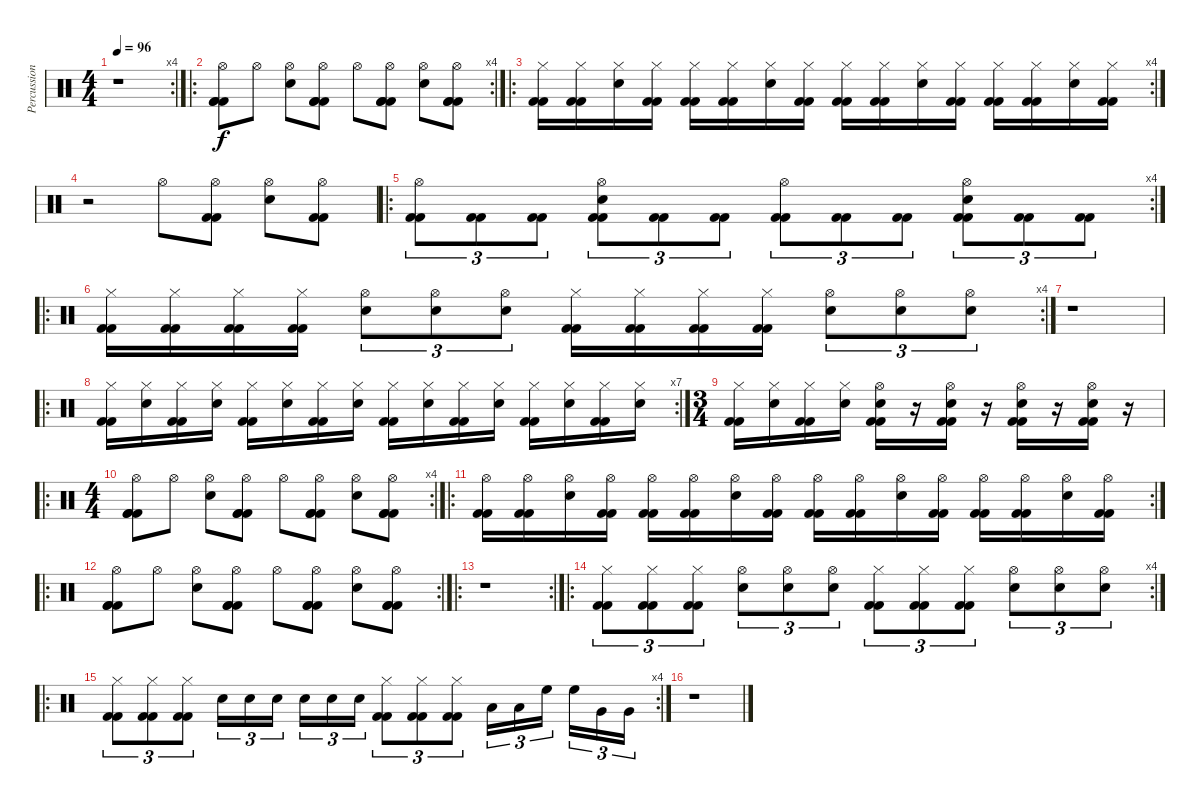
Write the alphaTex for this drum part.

\track ("Percussion" "Percussion") {instrument percussion}
\staff {score}
\articulation defaults
\rc 4
\ts (4 4)
\tempo 96
\clef neutral
\ks c
r.1{dy f} |
\ro
\rc 4
("Hi-Hat (open)" "Kick (hit) 2" "Kick (hit) 2" "Kick (hit) 2").8 "Hi-Hat (open)".8 ("Hi-Hat (open)" "Snare (hit) 2").8 ("Hi-Hat (open)" "Kick (hit) 2" "Kick (hit) 2" "Kick (hit) 2").8 "Hi-Hat (open)".8 ("Hi-Hat (open)" "Kick (hit) 2" "Kick (hit) 2" "Kick (hit) 2").8 ("Hi-Hat (open)" "Snare (hit) 2").8 ("Hi-Hat (open)" "Kick (hit) 2" "Kick (hit) 2" "Kick (hit) 2").8 |
\ro
\rc 4
("Hi-Hat (closed)" "Kick (hit) 2" "Kick (hit) 2").16 ("Hi-Hat (closed)" "Kick (hit) 2" "Kick (hit) 2").16 ("Hi-Hat (closed)" "Snare (hit) 2").16 ("Hi-Hat (closed)" "Kick (hit) 2" "Kick (hit) 2").16 ("Hi-Hat (closed)" "Kick (hit) 2" "Kick (hit) 2").16 ("Hi-Hat (closed)" "Kick (hit) 2" "Kick (hit) 2").16 ("Hi-Hat (closed)" "Snare (hit) 2").16 ("Hi-Hat (closed)" "Kick (hit) 2" "Kick (hit) 2").16 ("Hi-Hat (closed)" "Kick (hit) 2" "Kick (hit) 2").16 ("Hi-Hat (closed)" "Kick (hit) 2" "Kick (hit) 2").16 ("Hi-Hat (closed)" "Snare (hit) 2").16 ("Hi-Hat (closed)" "Kick (hit) 2" "Kick (hit) 2").16 ("Hi-Hat (closed)" "Kick (hit) 2" "Kick (hit) 2").16 ("Hi-Hat (closed)" "Kick (hit) 2" "Kick (hit) 2").16 ("Hi-Hat (closed)" "Snare (hit) 2").16 ("Hi-Hat (closed)" "Kick (hit) 2" "Kick (hit) 2").16 |
r.2 "Hi-Hat (open)".8 ("Hi-Hat (open)" "Kick (hit) 2" "Kick (hit) 2").8 ("Hi-Hat (open)" "Snare (hit) 2").8 ("Hi-Hat (open)" "Kick (hit) 2" "Kick (hit) 2").8 |
\ro
\rc 4
("Hi-Hat (open)" "Kick (hit) 2" "Kick (hit) 2").8{tu (3 2)} ("Kick (hit) 2" "Kick (hit) 2").8{tu (3 2)} ("Kick (hit) 2" "Kick (hit) 2").8{tu (3 2)} ("Hi-Hat (open)" "Snare (hit) 2" "Kick (hit) 2" "Kick (hit) 2").8{tu (3 2)} ("Kick (hit) 2" "Kick (hit) 2").8{tu (3 2)} ("Kick (hit) 2" "Kick (hit) 2").8{tu (3 2)} ("Hi-Hat (open)" "Kick (hit) 2" "Kick (hit) 2").8{tu (3 2)} ("Kick (hit) 2" "Kick (hit) 2").8{tu (3 2)} ("Kick (hit) 2" "Kick (hit) 2").8{tu (3 2)} ("Hi-Hat (open)" "Snare (hit) 2" "Kick (hit) 2" "Kick (hit) 2").8{tu (3 2)} ("Kick (hit) 2" "Kick (hit) 2").8{tu (3 2)} ("Kick (hit) 2" "Kick (hit) 2").8{tu (3 2)} |
\ro
\rc 4
("Hi-Hat (closed)" "Kick (hit) 2" "Kick (hit) 2").16 ("Hi-Hat (closed)" "Kick (hit) 2" "Kick (hit) 2").16 ("Hi-Hat (closed)" "Kick (hit) 2" "Kick (hit) 2").16 ("Hi-Hat (closed)" "Kick (hit) 2" "Kick (hit) 2").16 ("Hi-Hat (open)" "Snare (hit) 2").8{tu (3 2)} ("Hi-Hat (open)" "Snare (hit) 2").8{tu (3 2)} ("Hi-Hat (open)" "Snare (hit) 2").8{tu (3 2)} ("Hi-Hat (closed)" "Kick (hit) 2" "Kick (hit) 2").16 ("Hi-Hat (closed)" "Kick (hit) 2" "Kick (hit) 2").16 ("Hi-Hat (closed)" "Kick (hit) 2" "Kick (hit) 2").16 ("Hi-Hat (closed)" "Kick (hit) 2" "Kick (hit) 2").16 ("Hi-Hat (open)" "Snare (hit) 2").8{tu (3 2)} ("Hi-Hat (open)" "Snare (hit) 2").8{tu (3 2)} ("Hi-Hat (open)" "Snare (hit) 2").8{tu (3 2)} |
r.1 |
\ro
\rc 7
("Hi-Hat (closed)" "Kick (hit) 2" "Kick (hit) 2").16 ("Hi-Hat (closed)" "Snare (hit) 2").16 ("Hi-Hat (closed)" "Kick (hit) 2" "Kick (hit) 2").16 ("Hi-Hat (closed)" "Snare (hit) 2").16 ("Hi-Hat (closed)" "Kick (hit) 2" "Kick (hit) 2").16 ("Hi-Hat (closed)" "Snare (hit) 2").16 ("Hi-Hat (closed)" "Kick (hit) 2" "Kick (hit) 2").16 ("Hi-Hat (closed)" "Snare (hit) 2").16 ("Hi-Hat (closed)" "Kick (hit) 2" "Kick (hit) 2").16 ("Hi-Hat (closed)" "Snare (hit) 2").16 ("Hi-Hat (closed)" "Kick (hit) 2" "Kick (hit) 2").16 ("Hi-Hat (closed)" "Snare (hit) 2").16 ("Hi-Hat (closed)" "Kick (hit) 2" "Kick (hit) 2").16 ("Hi-Hat (closed)" "Snare (hit) 2").16 ("Hi-Hat (closed)" "Kick (hit) 2" "Kick (hit) 2").16 ("Hi-Hat (closed)" "Snare (hit) 2").16 |
\ts (3 4)
("Hi-Hat (closed)" "Kick (hit) 2" "Kick (hit) 2").16 ("Hi-Hat (closed)" "Snare (hit) 2").16 ("Hi-Hat (closed)" "Kick (hit) 2" "Kick (hit) 2").16 ("Hi-Hat (closed)" "Snare (hit) 2").16 ("Hi-Hat (open)" "Snare (hit) 2" "Kick (hit) 2" "Kick (hit) 2").16 r.16 ("Hi-Hat (open)" "Snare (hit) 2" "Kick (hit) 2" "Kick (hit) 2").16 r.16 ("Hi-Hat (open)" "Snare (hit) 2" "Kick (hit) 2" "Kick (hit) 2").16 r.16 ("Hi-Hat (open)" "Snare (hit) 2" "Kick (hit) 2" "Kick (hit) 2").16 r.16 |
\ro
\rc 4
\ts (4 4)
("Hi-Hat (open)" "Kick (hit) 2" "Kick (hit) 2" "Kick (hit) 2").8 "Hi-Hat (open)".8 ("Hi-Hat (open)" "Snare (hit) 2").8 ("Hi-Hat (open)" "Kick (hit) 2" "Kick (hit) 2" "Kick (hit) 2").8 "Hi-Hat (open)".8 ("Hi-Hat (open)" "Kick (hit) 2" "Kick (hit) 2" "Kick (hit) 2").8 ("Hi-Hat (open)" "Snare (hit) 2").8 ("Hi-Hat (open)" "Kick (hit) 2" "Kick (hit) 2" "Kick (hit) 2").8 |
\ro
\rc 2
("Hi-Hat (open)" "Kick (hit) 2" "Kick (hit) 2").16 ("Hi-Hat (open)" "Kick (hit) 2" "Kick (hit) 2").16 ("Hi-Hat (open)" "Snare (hit) 2").16 ("Hi-Hat (open)" "Kick (hit) 2" "Kick (hit) 2").16 ("Hi-Hat (open)" "Kick (hit) 2" "Kick (hit) 2").16 ("Hi-Hat (open)" "Kick (hit) 2" "Kick (hit) 2").16 ("Hi-Hat (open)" "Snare (hit) 2").16 ("Hi-Hat (open)" "Kick (hit) 2" "Kick (hit) 2").16 ("Hi-Hat (open)" "Kick (hit) 2" "Kick (hit) 2").16 ("Hi-Hat (open)" "Kick (hit) 2" "Kick (hit) 2").16 ("Hi-Hat (open)" "Snare (hit) 2").16 ("Hi-Hat (open)" "Kick (hit) 2" "Kick (hit) 2").16 ("Hi-Hat (open)" "Kick (hit) 2" "Kick (hit) 2").16 ("Hi-Hat (open)" "Kick (hit) 2" "Kick (hit) 2").16 ("Hi-Hat (open)" "Snare (hit) 2").16 ("Hi-Hat (open)" "Kick (hit) 2" "Kick (hit) 2").16 |
\ro
\rc 2
("Hi-Hat (open)" "Kick (hit) 2" "Kick (hit) 2" "Kick (hit) 2").8 "Hi-Hat (open)".8 ("Hi-Hat (open)" "Snare (hit) 2").8 ("Hi-Hat (open)" "Kick (hit) 2" "Kick (hit) 2" "Kick (hit) 2").8 "Hi-Hat (open)".8 ("Hi-Hat (open)" "Kick (hit) 2" "Kick (hit) 2" "Kick (hit) 2").8 ("Hi-Hat (open)" "Snare (hit) 2").8 ("Hi-Hat (open)" "Kick (hit) 2" "Kick (hit) 2" "Kick (hit) 2").8 |
\ro
\rc 2
r.1 |
\ro
\rc 4
("Hi-Hat (closed)" "Kick (hit) 2" "Kick (hit) 2").8{tu (3 2)} ("Hi-Hat (closed)" "Kick (hit) 2" "Kick (hit) 2").8{tu (3 2)} ("Hi-Hat (closed)" "Kick (hit) 2" "Kick (hit) 2").8{tu (3 2)} ("Hi-Hat (open)" "Snare (hit) 2").8{tu (3 2)} ("Hi-Hat (open)" "Snare (hit) 2").8{tu (3 2)} ("Hi-Hat (open)" "Snare (hit) 2").8{tu (3 2)} ("Hi-Hat (closed)" "Kick (hit) 2" "Kick (hit) 2").8{tu (3 2)} ("Hi-Hat (closed)" "Kick (hit) 2" "Kick (hit) 2").8{tu (3 2)} ("Hi-Hat (closed)" "Kick (hit) 2" "Kick (hit) 2").8{tu (3 2)} ("Hi-Hat (open)" "Snare (hit) 2").8{tu (3 2)} ("Hi-Hat (open)" "Snare (hit) 2").8{tu (3 2)} ("Hi-Hat (open)" "Snare (hit) 2").8{tu (3 2)} |
\ro
\rc 4
("Hi-Hat (closed)" "Kick (hit) 2" "Kick (hit) 2").8{tu (3 2)} ("Hi-Hat (closed)" "Kick (hit) 2" "Kick (hit) 2").8{tu (3 2)} ("Hi-Hat (closed)" "Kick (hit) 2" "Kick (hit) 2").8{tu (3 2)} "Snare (hit) 2".16{tu (3 2)} "Snare (hit) 2".16{tu (3 2)} "Snare (hit) 2".16{tu (3 2)} "Snare (hit) 2".16{tu (3 2)} "Snare (hit) 2".16{tu (3 2)} "Snare (hit) 2".16{tu (3 2)} ("Hi-Hat (closed)" "Kick (hit) 2" "Kick (hit) 2").8{tu (3 2)} ("Hi-Hat (closed)" "Kick (hit) 2" "Kick (hit) 2").8{tu (3 2)} ("Hi-Hat (closed)" "Kick (hit) 2" "Kick (hit) 2").8{tu (3 2)} "Low Tom (hit)".16{tu (3 2)} "Low Tom (hit)".16{tu (3 2)} "High Floor Tom (hit)".16{tu (3 2)} "High Floor Tom (hit)".16{tu (3 2)} "Very Low Tom (hit)".16{tu (3 2)} "Very Low Tom (hit)".16{tu (3 2)} |
r.1
